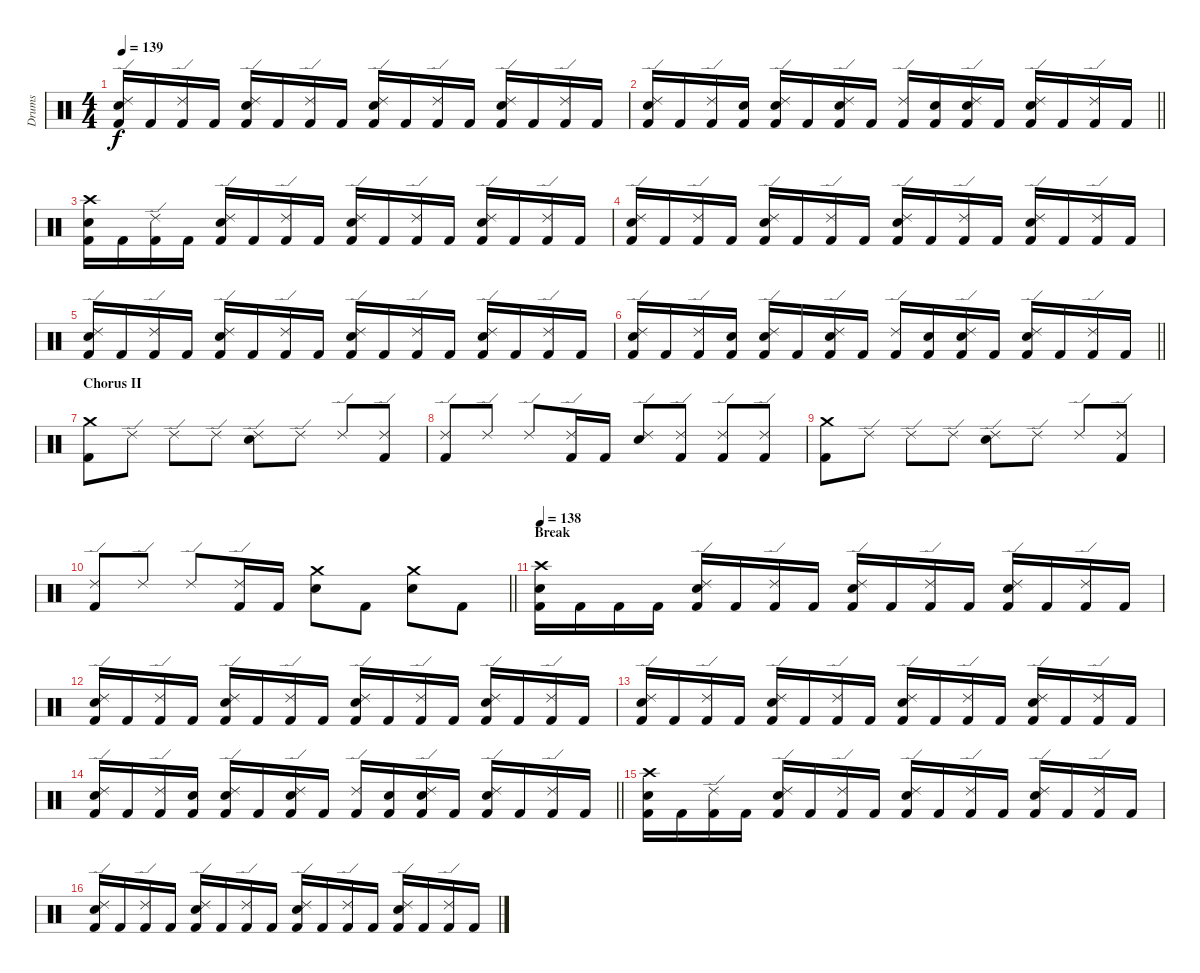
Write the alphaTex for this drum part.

\track ("Drums" "Drums") {instrument percussion}
\staff {score}
\articulation defaults
\ts (4 4)
\tempo 139
\clef neutral
\ks c
("Kick (hit) 2" "Snare (hit) 2" "Ride (edge) 2").16{dy f} "Kick (hit) 2".16 ("Kick (hit) 2" "Ride (edge) 2").16 "Kick (hit) 2".16 ("Kick (hit) 2" "Snare (hit) 2" "Ride (edge) 2").16 "Kick (hit) 2".16 ("Kick (hit) 2" "Ride (edge) 2").16 "Kick (hit) 2".16 ("Kick (hit) 2" "Snare (hit) 2" "Ride (edge) 2").16 "Kick (hit) 2".16 ("Kick (hit) 2" "Ride (edge) 2").16 "Kick (hit) 2".16 ("Kick (hit) 2" "Snare (hit) 2" "Ride (edge) 2").16 "Kick (hit) 2".16 ("Kick (hit) 2" "Ride (edge) 2").16 "Kick (hit) 2".16 |
\barLineRight lightlight
("Kick (hit) 2" "Snare (hit) 2" "Ride (edge) 2").16 "Kick (hit) 2".16 ("Kick (hit) 2" "Ride (edge) 2").16 ("Kick (hit) 2" "Snare (hit) 2").16 ("Kick (hit) 2" "Snare (hit) 2" "Ride (edge) 2").16 "Kick (hit) 2".16 ("Kick (hit) 2" "Snare (hit) 2" "Ride (edge) 2").16 "Kick (hit) 2".16 ("Kick (hit) 2" "Ride (edge) 2").16 ("Kick (hit) 2" "Snare (hit) 2").16 ("Kick (hit) 2" "Snare (hit) 2" "Ride (edge) 2").16 "Kick (hit) 2".16 ("Kick (hit) 2" "Snare (hit) 2" "Ride (edge) 2").16 "Kick (hit) 2".16 ("Kick (hit) 2" "Ride (edge) 2").16 "Kick (hit) 2".16 |
\section ("" "")
("Kick (hit) 2" "Snare (hit) 2" "Crash high (hit)").16 "Kick (hit) 2".16 ("Kick (hit) 2" "Ride (edge) 2").16 "Kick (hit) 2".16 ("Kick (hit) 2" "Snare (hit) 2" "Ride (edge) 2").16 "Kick (hit) 2".16 ("Kick (hit) 2" "Ride (edge) 2").16 "Kick (hit) 2".16 ("Kick (hit) 2" "Snare (hit) 2" "Ride (edge) 2").16 "Kick (hit) 2".16 ("Kick (hit) 2" "Ride (edge) 2").16 "Kick (hit) 2".16 ("Kick (hit) 2" "Snare (hit) 2" "Ride (edge) 2").16 "Kick (hit) 2".16 ("Kick (hit) 2" "Ride (edge) 2").16 "Kick (hit) 2".16 |
("Kick (hit) 2" "Snare (hit) 2" "Ride (edge) 2").16 "Kick (hit) 2".16 ("Kick (hit) 2" "Ride (edge) 2").16 "Kick (hit) 2".16 ("Kick (hit) 2" "Snare (hit) 2" "Ride (edge) 2").16 "Kick (hit) 2".16 ("Kick (hit) 2" "Ride (edge) 2").16 "Kick (hit) 2".16 ("Kick (hit) 2" "Snare (hit) 2" "Ride (edge) 2").16 "Kick (hit) 2".16 ("Kick (hit) 2" "Ride (edge) 2").16 "Kick (hit) 2".16 ("Kick (hit) 2" "Snare (hit) 2" "Ride (edge) 2").16 "Kick (hit) 2".16 ("Kick (hit) 2" "Ride (edge) 2").16 "Kick (hit) 2".16 |
("Kick (hit) 2" "Snare (hit) 2" "Ride (edge) 2").16 "Kick (hit) 2".16 ("Kick (hit) 2" "Ride (edge) 2").16 "Kick (hit) 2".16 ("Kick (hit) 2" "Snare (hit) 2" "Ride (edge) 2").16 "Kick (hit) 2".16 ("Kick (hit) 2" "Ride (edge) 2").16 "Kick (hit) 2".16 ("Kick (hit) 2" "Snare (hit) 2" "Ride (edge) 2").16 "Kick (hit) 2".16 ("Kick (hit) 2" "Ride (edge) 2").16 "Kick (hit) 2".16 ("Kick (hit) 2" "Snare (hit) 2" "Ride (edge) 2").16 "Kick (hit) 2".16 ("Kick (hit) 2" "Ride (edge) 2").16 "Kick (hit) 2".16 |
\barLineRight lightlight
("Kick (hit) 2" "Snare (hit) 2" "Ride (edge) 2").16 "Kick (hit) 2".16 ("Kick (hit) 2" "Ride (edge) 2").16 ("Kick (hit) 2" "Snare (hit) 2").16 ("Kick (hit) 2" "Snare (hit) 2" "Ride (edge) 2").16 "Kick (hit) 2".16 ("Kick (hit) 2" "Snare (hit) 2" "Ride (edge) 2").16 "Kick (hit) 2".16 ("Kick (hit) 2" "Ride (edge) 2").16 ("Kick (hit) 2" "Snare (hit) 2").16 ("Kick (hit) 2" "Snare (hit) 2" "Ride (edge) 2").16 "Kick (hit) 2".16 ("Kick (hit) 2" "Snare (hit) 2" "Ride (edge) 2").16 "Kick (hit) 2".16 ("Kick (hit) 2" "Ride (edge) 2").16 "Kick (hit) 2".16 |
\section ("" "Chorus II")
("Kick (hit) 2" "Crash medium (hit)").8 "Ride (edge) 2".8 "Ride (edge) 2".8 "Ride (edge) 2".8 ("Snare (hit) 2" "Ride (edge) 2").8 "Ride (edge) 2".8 "Ride (edge) 2".8 ("Kick (hit) 2" "Ride (edge) 2").8 |
("Kick (hit) 2" "Ride (edge) 2").8 "Ride (edge) 2".8 "Ride (edge) 2".8 ("Kick (hit) 2" "Ride (edge) 2").16 "Kick (hit) 2".16 ("Snare (hit) 2" "Ride (edge) 2").8 ("Kick (hit) 2" "Ride (edge) 2").8 ("Kick (hit) 2" "Ride (edge) 2").8 ("Kick (hit) 2" "Ride (edge) 2").8 |
("Kick (hit) 2" "Crash medium (hit)").8 "Ride (edge) 2".8 "Ride (edge) 2".8 "Ride (edge) 2".8 ("Snare (hit) 2" "Ride (edge) 2").8 "Ride (edge) 2".8 "Ride (edge) 2".8 ("Kick (hit) 2" "Ride (edge) 2").8 |
\barLineRight lightlight
("Kick (hit) 2" "Ride (edge) 2").8 "Ride (edge) 2".8 "Ride (edge) 2".8 ("Kick (hit) 2" "Ride (edge) 2").16 "Kick (hit) 2".16 ("Snare (hit) 2" "Crash medium (hit)").8 "Kick (hit) 2".8 ("Snare (hit) 2" "Crash medium (hit)").8 "Kick (hit) 2".8 |
\section ("" "Break")
\tempo 138
("Kick (hit) 2" "Snare (hit) 2" "Crash high (hit)").16 "Kick (hit) 2".16 "Kick (hit) 2".16 "Kick (hit) 2".16 ("Kick (hit) 2" "Snare (hit) 2" "Ride (edge) 2").16 "Kick (hit) 2".16 ("Kick (hit) 2" "Ride (edge) 2").16 "Kick (hit) 2".16 ("Kick (hit) 2" "Snare (hit) 2" "Ride (edge) 2").16 "Kick (hit) 2".16 ("Kick (hit) 2" "Ride (edge) 2").16 "Kick (hit) 2".16 ("Kick (hit) 2" "Snare (hit) 2" "Ride (edge) 2").16 "Kick (hit) 2".16 ("Kick (hit) 2" "Ride (edge) 2").16 "Kick (hit) 2".16 |
("Kick (hit) 2" "Snare (hit) 2" "Ride (edge) 2").16 "Kick (hit) 2".16 ("Kick (hit) 2" "Ride (edge) 2").16 "Kick (hit) 2".16 ("Kick (hit) 2" "Snare (hit) 2" "Ride (edge) 2").16 "Kick (hit) 2".16 ("Kick (hit) 2" "Ride (edge) 2").16 "Kick (hit) 2".16 ("Kick (hit) 2" "Snare (hit) 2" "Ride (edge) 2").16 "Kick (hit) 2".16 ("Kick (hit) 2" "Ride (edge) 2").16 "Kick (hit) 2".16 ("Kick (hit) 2" "Snare (hit) 2" "Ride (edge) 2").16 "Kick (hit) 2".16 ("Kick (hit) 2" "Ride (edge) 2").16 "Kick (hit) 2".16 |
("Kick (hit) 2" "Snare (hit) 2" "Ride (edge) 2").16 "Kick (hit) 2".16 ("Kick (hit) 2" "Ride (edge) 2").16 "Kick (hit) 2".16 ("Kick (hit) 2" "Snare (hit) 2" "Ride (edge) 2").16 "Kick (hit) 2".16 ("Kick (hit) 2" "Ride (edge) 2").16 "Kick (hit) 2".16 ("Kick (hit) 2" "Snare (hit) 2" "Ride (edge) 2").16 "Kick (hit) 2".16 ("Kick (hit) 2" "Ride (edge) 2").16 "Kick (hit) 2".16 ("Kick (hit) 2" "Snare (hit) 2" "Ride (edge) 2").16 "Kick (hit) 2".16 ("Kick (hit) 2" "Ride (edge) 2").16 "Kick (hit) 2".16 |
\barLineRight lightlight
("Kick (hit) 2" "Snare (hit) 2" "Ride (edge) 2").16 "Kick (hit) 2".16 ("Kick (hit) 2" "Ride (edge) 2").16 ("Kick (hit) 2" "Snare (hit) 2").16 ("Kick (hit) 2" "Snare (hit) 2" "Ride (edge) 2").16 "Kick (hit) 2".16 ("Kick (hit) 2" "Snare (hit) 2" "Ride (edge) 2").16 "Kick (hit) 2".16 ("Kick (hit) 2" "Ride (edge) 2").16 ("Kick (hit) 2" "Snare (hit) 2").16 ("Kick (hit) 2" "Snare (hit) 2" "Ride (edge) 2").16 "Kick (hit) 2".16 ("Kick (hit) 2" "Snare (hit) 2" "Ride (edge) 2").16 "Kick (hit) 2".16 ("Kick (hit) 2" "Ride (edge) 2").16 "Kick (hit) 2".16 |
\section ("" "")
("Kick (hit) 2" "Snare (hit) 2" "Crash high (hit)").16 "Kick (hit) 2".16 ("Kick (hit) 2" "Ride (edge) 2").16 "Kick (hit) 2".16 ("Kick (hit) 2" "Snare (hit) 2" "Ride (edge) 2").16 "Kick (hit) 2".16 ("Kick (hit) 2" "Ride (edge) 2").16 "Kick (hit) 2".16 ("Kick (hit) 2" "Snare (hit) 2" "Ride (edge) 2").16 "Kick (hit) 2".16 ("Kick (hit) 2" "Ride (edge) 2").16 "Kick (hit) 2".16 ("Kick (hit) 2" "Snare (hit) 2" "Ride (edge) 2").16 "Kick (hit) 2".16 ("Kick (hit) 2" "Ride (edge) 2").16 "Kick (hit) 2".16 |
("Kick (hit) 2" "Snare (hit) 2" "Ride (edge) 2").16 "Kick (hit) 2".16 ("Kick (hit) 2" "Ride (edge) 2").16 "Kick (hit) 2".16 ("Kick (hit) 2" "Snare (hit) 2" "Ride (edge) 2").16 "Kick (hit) 2".16 ("Kick (hit) 2" "Ride (edge) 2").16 "Kick (hit) 2".16 ("Kick (hit) 2" "Snare (hit) 2" "Ride (edge) 2").16 "Kick (hit) 2".16 ("Kick (hit) 2" "Ride (edge) 2").16 "Kick (hit) 2".16 ("Kick (hit) 2" "Snare (hit) 2" "Ride (edge) 2").16 "Kick (hit) 2".16 ("Kick (hit) 2" "Ride (edge) 2").16 "Kick (hit) 2".16
